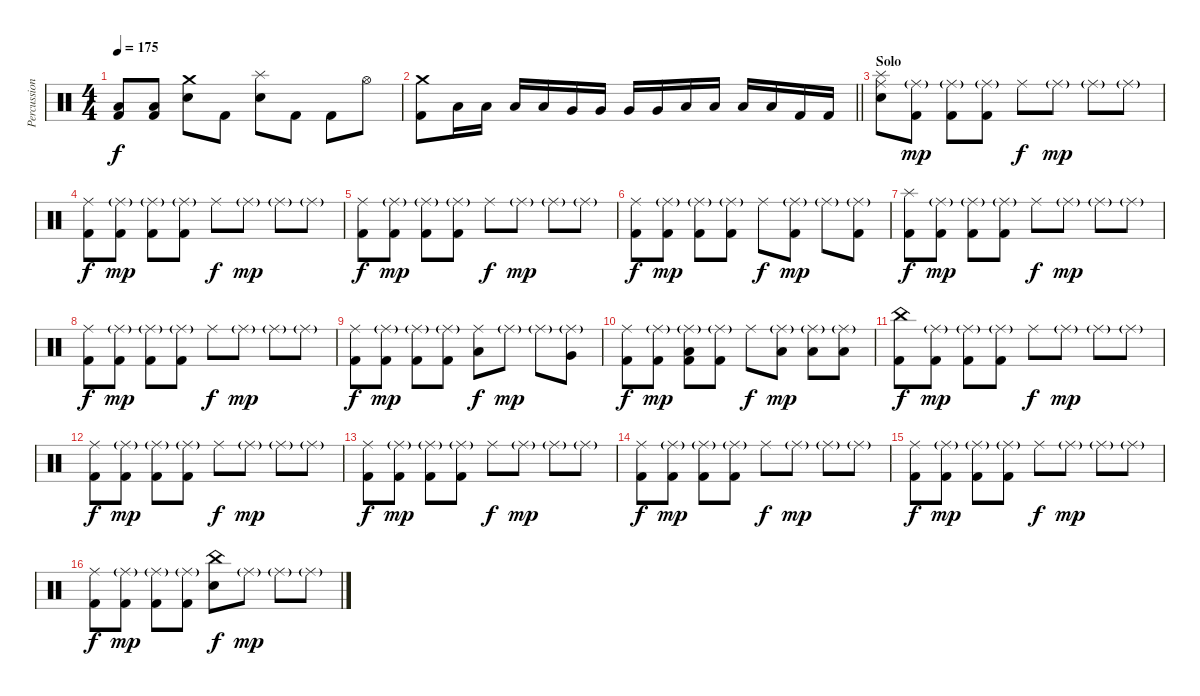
\track ("Percussion" "Percussion") {instrument percussion}
\staff {score}
\articulation defaults
\ts (4 4)
\tempo 175
\clef neutral
\ks c
("Low Floor Tom (hit)" "Kick (hit) 2").8{dy f} ("Low Floor Tom (hit)" "Kick (hit) 2").8 ("Crash medium (hit)" "Electric Snare (hit)").8 "Kick (hit) 2".8 ("Splash (hit)" "Electric Snare (hit)").8 "Kick (hit) 2".8 "Kick (hit) 2".8 "Hi-Hat (open)".8 |
\barLineRight lightlight
("Crash medium (hit)" "Kick (hit) 2").8 "Low Tom (hit)".16 "Low Tom (hit)".16 "Low Tom (hit)".16 "Low Tom (hit)".16 "Very Low Tom (hit)".16 "Very Low Tom (hit)".16 "Very Low Tom (hit)".16 "Very Low Tom (hit)".16 "Low Floor Tom (hit)".16 "Low Floor Tom (hit)".16 "Low Floor Tom (hit)".16 "Low Floor Tom (hit)".16 "Kick (hit) 2".16 "Kick (hit) 2".16 |
\section ("" "Solo")
("Electric Snare (hit)" "Ride (middle)" "Splash (hit)").8 ("Ride (middle)"{g} "Kick (hit) 2").8{dy mp} ("Ride (middle)"{g} "Kick (hit) 2").8 ("Ride (middle)"{g} "Kick (hit) 2").8 "Ride (middle)".8{dy f} "Ride (middle)"{g}.8{dy mp} "Ride (middle)"{g}.8 "Ride (middle)"{g}.8 |
("Ride (middle)" "Kick (hit) 2").8{dy f} ("Ride (middle)"{g} "Kick (hit) 2").8{dy mp} ("Ride (middle)"{g} "Kick (hit) 2").8 ("Ride (middle)"{g} "Kick (hit) 2").8 "Ride (middle)".8{dy f} "Ride (middle)"{g}.8{dy mp} "Ride (middle)"{g}.8 "Ride (middle)"{g}.8 |
("Ride (middle)" "Kick (hit) 2").8{dy f} ("Ride (middle)"{g} "Kick (hit) 2").8{dy mp} ("Ride (middle)"{g} "Kick (hit) 2").8 ("Ride (middle)"{g} "Kick (hit) 2").8 "Ride (middle)".8{dy f} "Ride (middle)"{g}.8{dy mp} "Ride (middle)"{g}.8 "Ride (middle)"{g}.8 |
("Ride (middle)" "Kick (hit) 2").8{dy f} ("Ride (middle)"{g} "Kick (hit) 2").8{dy mp} ("Ride (middle)"{g} "Kick (hit) 2").8 ("Ride (middle)"{g} "Kick (hit) 2").8 "Ride (middle)".8{dy f} ("Ride (middle)"{g} "Kick (hit) 2").8{dy mp} "Ride (middle)"{g}.8 ("Ride (middle)"{g} "Kick (hit) 2").8 |
("Splash (hit)" "Kick (hit) 2").8{dy f} ("Ride (middle)"{g} "Kick (hit) 2").8{dy mp} ("Ride (middle)"{g} "Kick (hit) 2").8 ("Ride (middle)"{g} "Kick (hit) 2").8 "Ride (middle)".8{dy f} "Ride (middle)"{g}.8{dy mp} "Ride (middle)"{g}.8 "Ride (middle)"{g}.8 |
("Ride (middle)" "Kick (hit) 2").8{dy f} ("Ride (middle)"{g} "Kick (hit) 2").8{dy mp} ("Ride (middle)"{g} "Kick (hit) 2").8 ("Ride (middle)"{g} "Kick (hit) 2").8 "Ride (middle)".8{dy f} "Ride (middle)"{g}.8{dy mp} "Ride (middle)"{g}.8 "Ride (middle)"{g}.8 |
("Ride (middle)" "Kick (hit) 2").8{dy f} ("Ride (middle)"{g} "Kick (hit) 2").8{dy mp} ("Ride (middle)"{g} "Kick (hit) 2").8 ("Ride (middle)"{g} "Kick (hit) 2").8 ("Ride (middle)" "Low Tom (hit)").8{dy f} "Ride (middle)"{g}.8{dy mp} "Ride (middle)"{g}.8 ("Ride (middle)"{g} "Very Low Tom (hit)").8 |
("Ride (middle)" "Kick (hit) 2").8{dy f} ("Ride (middle)"{g} "Kick (hit) 2").8{dy mp} ("Ride (middle)"{g} "Low Floor Tom (hit)" "Kick (hit) 2").8 ("Ride (middle)"{g} "Kick (hit) 2").8 "Ride (middle)".8{dy f} ("Ride (middle)"{g} "Low Floor Tom (hit)").8{dy mp} ("Ride (middle)"{g} "Low Floor Tom (hit)").8 ("Ride (middle)"{g} "Low Floor Tom (hit)").8 |
("China (hit)" "Kick (hit) 2").8{dy f} ("Ride (middle)"{g} "Kick (hit) 2").8{dy mp} ("Ride (middle)"{g} "Kick (hit) 2").8 ("Ride (middle)"{g} "Kick (hit) 2").8 "Ride (middle)".8{dy f} "Ride (middle)"{g}.8{dy mp} "Ride (middle)"{g}.8 "Ride (middle)"{g}.8 |
("Ride (middle)" "Kick (hit) 2").8{dy f} ("Ride (middle)"{g} "Kick (hit) 2").8{dy mp} ("Ride (middle)"{g} "Kick (hit) 2").8 ("Ride (middle)"{g} "Kick (hit) 2").8 "Ride (middle)".8{dy f} "Ride (middle)"{g}.8{dy mp} "Ride (middle)"{g}.8 "Ride (middle)"{g}.8 |
("Ride (middle)" "Kick (hit) 2").8{dy f} ("Ride (middle)"{g} "Kick (hit) 2").8{dy mp} ("Ride (middle)"{g} "Kick (hit) 2").8 ("Ride (middle)"{g} "Kick (hit) 2").8 "Ride (middle)".8{dy f} "Ride (middle)"{g}.8{dy mp} "Ride (middle)"{g}.8 "Ride (middle)"{g}.8 |
("Ride (middle)" "Kick (hit) 2").8{dy f} ("Ride (middle)"{g} "Kick (hit) 2").8{dy mp} ("Ride (middle)"{g} "Kick (hit) 2").8 ("Ride (middle)"{g} "Kick (hit) 2").8 "Ride (middle)".8{dy f} "Ride (middle)"{g}.8{dy mp} "Ride (middle)"{g}.8 "Ride (middle)"{g}.8 |
("Ride (middle)" "Kick (hit) 2").8{dy f} ("Ride (middle)"{g} "Kick (hit) 2").8{dy mp} ("Ride (middle)"{g} "Kick (hit) 2").8 ("Ride (middle)"{g} "Kick (hit) 2").8 "Ride (middle)".8{dy f} "Ride (middle)"{g}.8{dy mp} "Ride (middle)"{g}.8 "Ride (middle)"{g}.8 |
("Ride (middle)" "Kick (hit) 2").8{dy f} ("Ride (middle)"{g} "Kick (hit) 2").8{dy mp} ("Ride (middle)"{g} "Kick (hit) 2").8 ("Ride (middle)"{g} "Kick (hit) 2").8 ("China (hit)" "Electric Snare (hit)").8{dy f} "Ride (middle)"{g}.8{dy mp} "Ride (middle)"{g}.8 "Ride (middle)"{g}.8
